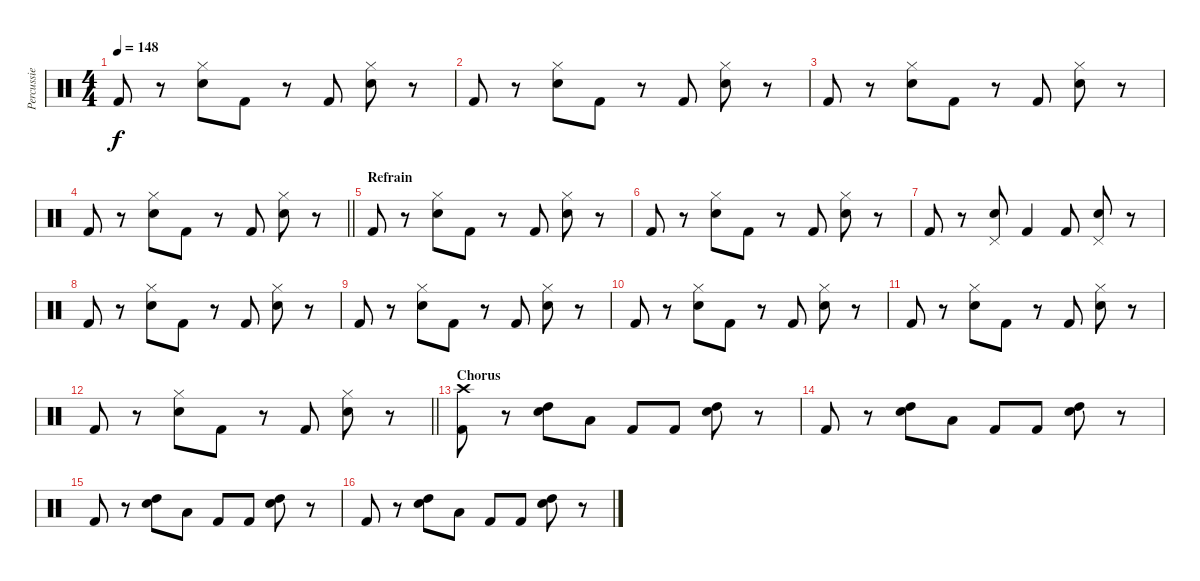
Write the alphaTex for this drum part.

\track ("Percussie" "Percussie") {instrument percussion}
\staff {score}
\articulation defaults
\ts (4 4)
\tempo 148
\clef neutral
\ks c "Kick (hit) 2".8{dy f}
r.8 ("Hi-Hat (closed)" "Electric Snare (hit)").8 "Kick (hit) 2".8 r.8 "Kick (hit) 2".8 ("Hi-Hat (closed)" "Electric Snare (hit)").8 r.8 |
"Kick (hit) 2".8 r.8 ("Hi-Hat (closed)" "Electric Snare (hit)").8 "Kick (hit) 2".8 r.8 "Kick (hit) 2".8 ("Hi-Hat (closed)" "Electric Snare (hit)").8 r.8 |
"Kick (hit) 2".8 r.8 ("Hi-Hat (closed)" "Electric Snare (hit)").8 "Kick (hit) 2".8 r.8 "Kick (hit) 2".8 ("Hi-Hat (closed)" "Electric Snare (hit)").8 r.8 |
\barLineRight lightlight "Kick (hit) 2".8
r.8 ("Hi-Hat (closed)" "Electric Snare (hit)").8 "Kick (hit) 2".8 r.8 "Kick (hit) 2".8 ("Hi-Hat (closed)" "Electric Snare (hit)").8 r.8 |
\section ("" "Refrain")
"Kick (hit) 2".8 r.8 ("Hi-Hat (closed)" "Electric Snare (hit)").8 "Kick (hit) 2".8 r.8 "Kick (hit) 2".8 ("Hi-Hat (closed)" "Electric Snare (hit)").8 r.8 |
"Kick (hit) 2".8 r.8 ("Hi-Hat (closed)" "Electric Snare (hit)").8 "Kick (hit) 2".8 r.8 "Kick (hit) 2".8 ("Hi-Hat (closed)" "Electric Snare (hit)").8 r.8 |
"Kick (hit) 2".8 r.8 ("Pedal Hi-Hat (hit)" "Electric Snare (hit)").8 "Kick (hit) 2".4 "Kick (hit) 2".8 ("Pedal Hi-Hat (hit)" "Electric Snare (hit)").8 r.8 |
"Kick (hit) 2".8 r.8 ("Hi-Hat (closed)" "Electric Snare (hit)").8 "Kick (hit) 2".8 r.8 "Kick (hit) 2".8 ("Hi-Hat (closed)" "Electric Snare (hit)").8 r.8 |
"Kick (hit) 2".8 r.8 ("Hi-Hat (closed)" "Electric Snare (hit)").8 "Kick (hit) 2".8 r.8 "Kick (hit) 2".8 ("Hi-Hat (closed)" "Electric Snare (hit)").8 r.8 |
"Kick (hit) 2".8 r.8 ("Hi-Hat (closed)" "Electric Snare (hit)").8 "Kick (hit) 2".8 r.8 "Kick (hit) 2".8 ("Hi-Hat (closed)" "Electric Snare (hit)").8 r.8 |
"Kick (hit) 2".8 r.8 ("Hi-Hat (closed)" "Electric Snare (hit)").8 "Kick (hit) 2".8 r.8 "Kick (hit) 2".8 ("Hi-Hat (closed)" "Electric Snare (hit)").8 r.8 |
\barLineRight lightlight "Kick (hit) 2".8
r.8 ("Hi-Hat (closed)" "Electric Snare (hit)").8 "Kick (hit) 2".8 r.8 "Kick (hit) 2".8 ("Hi-Hat (closed)" "Electric Snare (hit)").8 r.8 |
\section ("" "Chorus")
("Crash high (hit)" "Kick (hit) 2").8 r.8 ("Electric Snare (hit)" "High Tom (hit)").8 "Low Tom (hit)".8 "Kick (hit) 2".8 "Kick (hit) 2".8 ("Electric Snare (hit)" "High Tom (hit)").8 r.8 |
"Kick (hit) 2".8 r.8 ("Electric Snare (hit)" "High Tom (hit)").8 "Low Tom (hit)".8 "Kick (hit) 2".8 "Kick (hit) 2".8 ("Electric Snare (hit)" "High Tom (hit)").8 r.8 |
"Kick (hit) 2".8 r.8 ("Electric Snare (hit)" "High Tom (hit)").8 "Low Tom (hit)".8 "Kick (hit) 2".8 "Kick (hit) 2".8 ("Electric Snare (hit)" "High Tom (hit)").8 r.8 |
"Kick (hit) 2".8 r.8 ("Electric Snare (hit)" "High Tom (hit)").8 "Low Tom (hit)".8 "Kick (hit) 2".8 "Kick (hit) 2".8 ("Electric Snare (hit)" "High Tom (hit)").8 r.8
